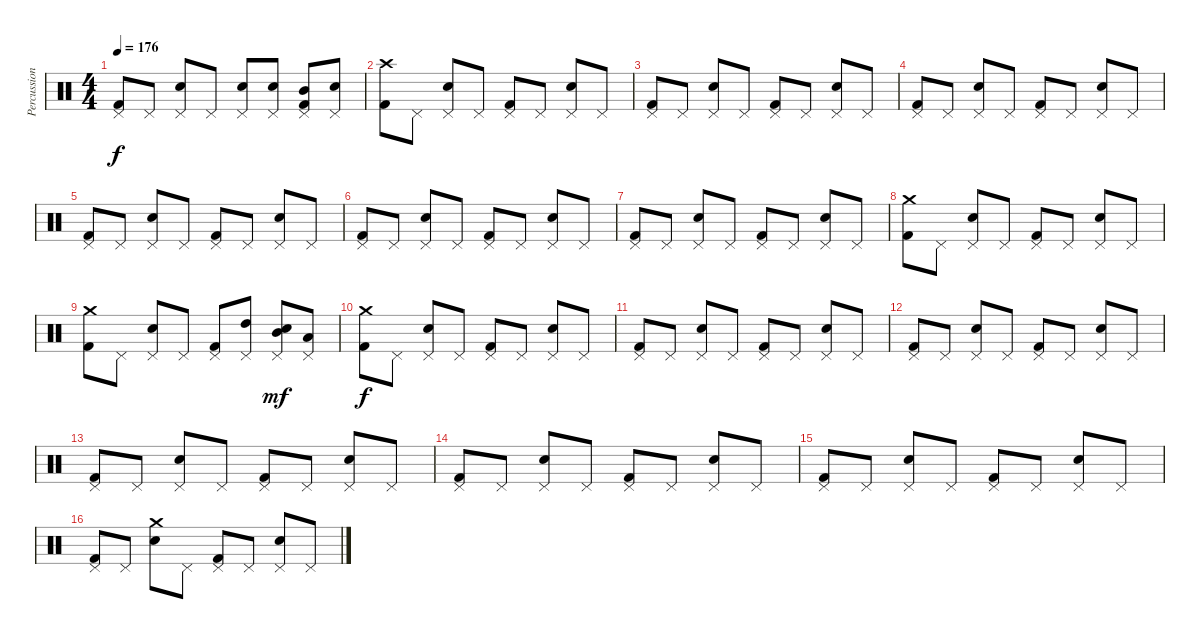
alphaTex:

\track ("Percussions" "Percussion") {instrument percussion}
\staff {score}
\articulation defaults
\ts (4 4)
\tempo 176
\clef neutral
\ks c
("Pedal Hi-Hat (hit)" "Kick (hit) 2").8{dy f} "Pedal Hi-Hat (hit)".8 ("Pedal Hi-Hat (hit)" "Electric Snare (hit)").8 "Pedal Hi-Hat (hit)".8 ("Pedal Hi-Hat (hit)" "Electric Snare (hit)").8 ("Pedal Hi-Hat (hit)" "Electric Snare (hit)").8 ("Pedal Hi-Hat (hit)" "Mid Tom (hit)" "Kick (hit) 2").8 ("Pedal Hi-Hat (hit)" "Electric Snare (hit)").8 |
("Crash high (hit)" "Kick (hit) 2").8 "Pedal Hi-Hat (hit)".8 ("Pedal Hi-Hat (hit)" "Electric Snare (hit)").8 "Pedal Hi-Hat (hit)".8 ("Pedal Hi-Hat (hit)" "Kick (hit) 2").8 "Pedal Hi-Hat (hit)".8 ("Pedal Hi-Hat (hit)" "Electric Snare (hit)").8 "Pedal Hi-Hat (hit)".8 |
("Pedal Hi-Hat (hit)" "Kick (hit) 2").8 "Pedal Hi-Hat (hit)".8 ("Pedal Hi-Hat (hit)" "Electric Snare (hit)").8 "Pedal Hi-Hat (hit)".8 ("Pedal Hi-Hat (hit)" "Kick (hit) 2").8 "Pedal Hi-Hat (hit)".8 ("Pedal Hi-Hat (hit)" "Electric Snare (hit)").8 "Pedal Hi-Hat (hit)".8 |
("Pedal Hi-Hat (hit)" "Kick (hit) 2").8 "Pedal Hi-Hat (hit)".8 ("Pedal Hi-Hat (hit)" "Electric Snare (hit)").8 "Pedal Hi-Hat (hit)".8 ("Pedal Hi-Hat (hit)" "Kick (hit) 2").8 "Pedal Hi-Hat (hit)".8 ("Pedal Hi-Hat (hit)" "Electric Snare (hit)").8 "Pedal Hi-Hat (hit)".8 |
("Pedal Hi-Hat (hit)" "Kick (hit) 2").8 "Pedal Hi-Hat (hit)".8 ("Pedal Hi-Hat (hit)" "Electric Snare (hit)").8 "Pedal Hi-Hat (hit)".8 ("Pedal Hi-Hat (hit)" "Kick (hit) 2").8 "Pedal Hi-Hat (hit)".8 ("Pedal Hi-Hat (hit)" "Electric Snare (hit)").8 "Pedal Hi-Hat (hit)".8 |
("Pedal Hi-Hat (hit)" "Kick (hit) 2").8 "Pedal Hi-Hat (hit)".8 ("Pedal Hi-Hat (hit)" "Electric Snare (hit)").8 "Pedal Hi-Hat (hit)".8 ("Pedal Hi-Hat (hit)" "Kick (hit) 2").8 "Pedal Hi-Hat (hit)".8 ("Pedal Hi-Hat (hit)" "Electric Snare (hit)").8 "Pedal Hi-Hat (hit)".8 |
("Pedal Hi-Hat (hit)" "Kick (hit) 2").8 "Pedal Hi-Hat (hit)".8 ("Pedal Hi-Hat (hit)" "Electric Snare (hit)").8 "Pedal Hi-Hat (hit)".8 ("Pedal Hi-Hat (hit)" "Kick (hit) 2").8 "Pedal Hi-Hat (hit)".8 ("Pedal Hi-Hat (hit)" "Electric Snare (hit)").8 "Pedal Hi-Hat (hit)".8 |
("Crash medium (hit)" "Kick (hit) 2").8 "Pedal Hi-Hat (hit)".8 ("Pedal Hi-Hat (hit)" "Electric Snare (hit)").8 "Pedal Hi-Hat (hit)".8 ("Pedal Hi-Hat (hit)" "Kick (hit) 2").8 "Pedal Hi-Hat (hit)".8 ("Pedal Hi-Hat (hit)" "Electric Snare (hit)").8 "Pedal Hi-Hat (hit)".8 |
("Crash medium (hit)" "Kick (hit) 2").8 "Pedal Hi-Hat (hit)".8 ("Pedal Hi-Hat (hit)" "Electric Snare (hit)").8 "Pedal Hi-Hat (hit)".8 ("Pedal Hi-Hat (hit)" "Kick (hit) 2").8 ("Pedal Hi-Hat (hit)" "High Tom (hit)").8 ("Pedal Hi-Hat (hit)" "Mid Tom (hit)" "Electric Snare (hit)").8{dy mf} ("Pedal Hi-Hat (hit)" "Low Tom (hit)").8 |
("Crash medium (hit)" "Kick (hit) 2").8{dy f} "Pedal Hi-Hat (hit)".8 ("Pedal Hi-Hat (hit)" "Electric Snare (hit)").8 "Pedal Hi-Hat (hit)".8 ("Pedal Hi-Hat (hit)" "Kick (hit) 2").8 "Pedal Hi-Hat (hit)".8 ("Pedal Hi-Hat (hit)" "Electric Snare (hit)").8 "Pedal Hi-Hat (hit)".8 |
("Pedal Hi-Hat (hit)" "Kick (hit) 2").8 "Pedal Hi-Hat (hit)".8 ("Pedal Hi-Hat (hit)" "Electric Snare (hit)").8 "Pedal Hi-Hat (hit)".8 ("Pedal Hi-Hat (hit)" "Kick (hit) 2").8 "Pedal Hi-Hat (hit)".8 ("Pedal Hi-Hat (hit)" "Electric Snare (hit)").8 "Pedal Hi-Hat (hit)".8 |
("Pedal Hi-Hat (hit)" "Kick (hit) 2").8 "Pedal Hi-Hat (hit)".8 ("Pedal Hi-Hat (hit)" "Electric Snare (hit)").8 "Pedal Hi-Hat (hit)".8 ("Pedal Hi-Hat (hit)" "Kick (hit) 2").8 "Pedal Hi-Hat (hit)".8 ("Pedal Hi-Hat (hit)" "Electric Snare (hit)").8 "Pedal Hi-Hat (hit)".8 |
("Pedal Hi-Hat (hit)" "Kick (hit) 2").8 "Pedal Hi-Hat (hit)".8 ("Pedal Hi-Hat (hit)" "Electric Snare (hit)").8 "Pedal Hi-Hat (hit)".8 ("Pedal Hi-Hat (hit)" "Kick (hit) 2").8 "Pedal Hi-Hat (hit)".8 ("Pedal Hi-Hat (hit)" "Electric Snare (hit)").8 "Pedal Hi-Hat (hit)".8 |
("Pedal Hi-Hat (hit)" "Kick (hit) 2").8 "Pedal Hi-Hat (hit)".8 ("Pedal Hi-Hat (hit)" "Electric Snare (hit)").8 "Pedal Hi-Hat (hit)".8 ("Pedal Hi-Hat (hit)" "Kick (hit) 2").8 "Pedal Hi-Hat (hit)".8 ("Pedal Hi-Hat (hit)" "Electric Snare (hit)").8 "Pedal Hi-Hat (hit)".8 |
("Pedal Hi-Hat (hit)" "Kick (hit) 2").8 "Pedal Hi-Hat (hit)".8 ("Pedal Hi-Hat (hit)" "Electric Snare (hit)").8 "Pedal Hi-Hat (hit)".8 ("Pedal Hi-Hat (hit)" "Kick (hit) 2").8 "Pedal Hi-Hat (hit)".8 ("Pedal Hi-Hat (hit)" "Electric Snare (hit)").8 "Pedal Hi-Hat (hit)".8 |
("Pedal Hi-Hat (hit)" "Kick (hit) 2").8 "Pedal Hi-Hat (hit)".8 ("Crash medium (hit)" "Electric Snare (hit)").8 "Pedal Hi-Hat (hit)".8 ("Pedal Hi-Hat (hit)" "Kick (hit) 2").8 "Pedal Hi-Hat (hit)".8 ("Pedal Hi-Hat (hit)" "Electric Snare (hit)").8 "Pedal Hi-Hat (hit)".8
